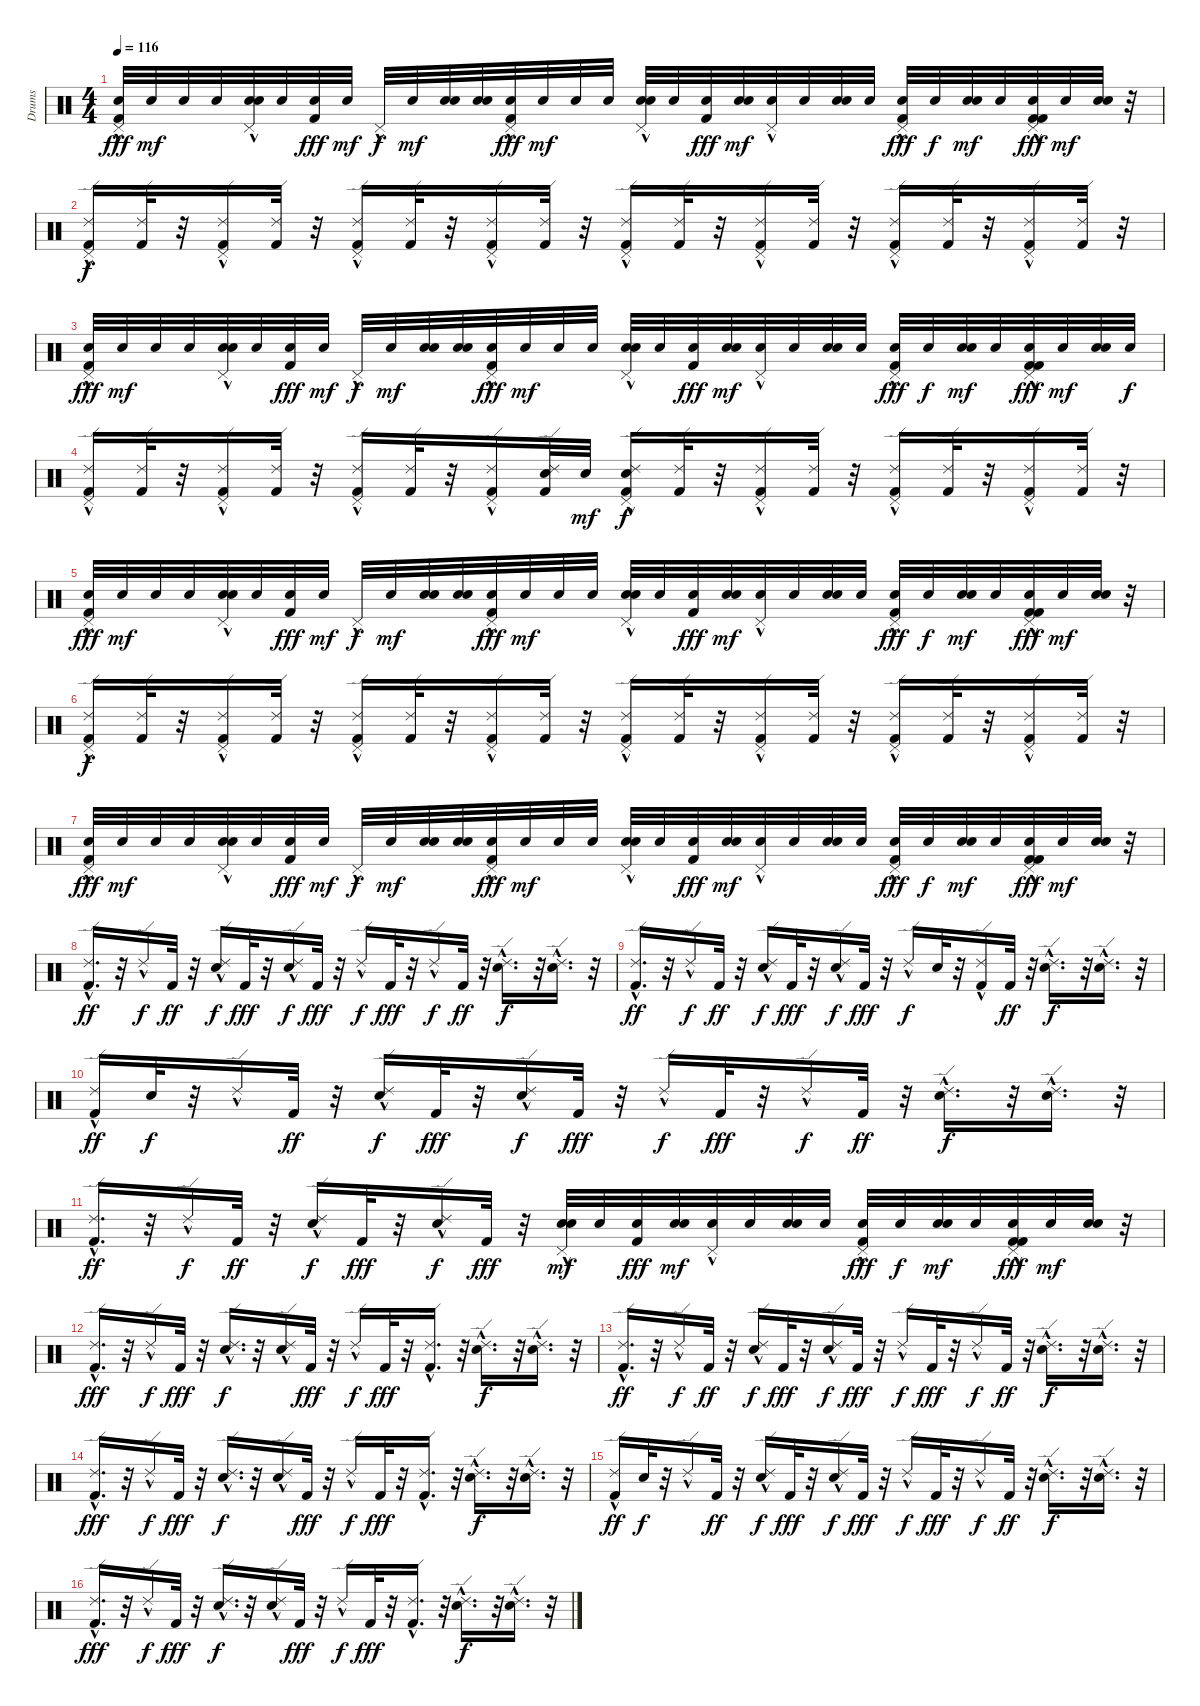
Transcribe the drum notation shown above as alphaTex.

\track ("Drums" "Drums") {instrument percussion}
\staff {score}
\articulation defaults
\ts (4 4)
\tempo 116
\clef neutral
\ks c
("Electric Snare (hit)" "Kick (hit) 2"{hac} "Pedal Hi-Hat (hit)"{hac}).32{dy fff} "Electric Snare (hit)".32{dy mf} "Electric Snare (hit)".32 "Electric Snare (hit)".32 ("Electric Snare (hit)" "Pedal Hi-Hat (hit)"{hac} "Electric Snare (hit)").32 "Electric Snare (hit)".32 ("Electric Snare (hit)" "Kick (hit) 2").32{dy fff} "Electric Snare (hit)".32{dy mf} "Pedal Hi-Hat (hit)"{hac}.32{dy f} "Electric Snare (hit)".32{dy mf} ("Electric Snare (hit)" "Electric Snare (hit)").32 ("Electric Snare (hit)" "Electric Snare (hit)").32 ("Electric Snare (hit)" "Kick (hit) 2" "Pedal Hi-Hat (hit)"{hac}).32{dy fff} "Electric Snare (hit)".32{dy mf} "Electric Snare (hit)".32 "Electric Snare (hit)".32 ("Electric Snare (hit)" "Pedal Hi-Hat (hit)"{hac} "Electric Snare (hit)").32 "Electric Snare (hit)".32 ("Electric Snare (hit)" "Kick (hit) 2").32{dy fff} ("Electric Snare (hit)" "Electric Snare (hit)").32{dy mf} ("Electric Snare (hit)" "Pedal Hi-Hat (hit)"{hac}).32 "Electric Snare (hit)".32 ("Electric Snare (hit)" "Electric Snare (hit)").32 "Electric Snare (hit)".32 ("Electric Snare (hit)" "Kick (hit) 2" "Pedal Hi-Hat (hit)"{hac}).32{dy fff} "Electric Snare (hit)".32{dy f} ("Electric Snare (hit)" "Electric Snare (hit)").32{dy mf} "Electric Snare (hit)".32 ("Kick (hit) 2" "Electric Snare (hit)" "Kick (hit) 2" "Pedal Hi-Hat (hit)"{hac}).32{dy fff} "Electric Snare (hit)".32{dy mf} ("Electric Snare (hit)" "Electric Snare (hit)").32 r.32 |
("Kick (hit) 2" "Ride (edge) 2" "Pedal Hi-Hat (hit)"{hac}).16{dy f} ("Kick (hit) 2" "Ride (edge) 2").32 r.32 ("Kick (hit) 2" "Ride (edge) 2" "Pedal Hi-Hat (hit)"{hac}).16 ("Kick (hit) 2" "Ride (edge) 2").32 r.32 ("Kick (hit) 2" "Ride (edge) 2" "Pedal Hi-Hat (hit)"{hac}).16 ("Kick (hit) 2" "Ride (edge) 2").32 r.32 ("Kick (hit) 2" "Ride (edge) 2" "Pedal Hi-Hat (hit)"{hac}).16 ("Kick (hit) 2" "Ride (edge) 2").32 r.32 ("Kick (hit) 2" "Ride (edge) 2" "Pedal Hi-Hat (hit)"{hac}).16 ("Kick (hit) 2" "Ride (edge) 2").32 r.32 ("Kick (hit) 2" "Ride (edge) 2" "Pedal Hi-Hat (hit)"{hac}).16 ("Kick (hit) 2" "Ride (edge) 2").32 r.32 ("Kick (hit) 2" "Ride (edge) 2" "Pedal Hi-Hat (hit)"{hac}).16 ("Kick (hit) 2" "Ride (edge) 2").32 r.32 ("Kick (hit) 2" "Ride (edge) 2" "Pedal Hi-Hat (hit)"{hac}).16 ("Kick (hit) 2" "Ride (edge) 2").32 r.32 |
("Electric Snare (hit)" "Kick (hit) 2"{hac} "Pedal Hi-Hat (hit)"{hac}).32{dy fff} "Electric Snare (hit)".32{dy mf} "Electric Snare (hit)".32 "Electric Snare (hit)".32 ("Electric Snare (hit)" "Pedal Hi-Hat (hit)"{hac} "Electric Snare (hit)").32 "Electric Snare (hit)".32 ("Electric Snare (hit)" "Kick (hit) 2").32{dy fff} "Electric Snare (hit)".32{dy mf} "Pedal Hi-Hat (hit)"{hac}.32{dy f} "Electric Snare (hit)".32{dy mf} ("Electric Snare (hit)" "Electric Snare (hit)").32 ("Electric Snare (hit)" "Electric Snare (hit)").32 ("Electric Snare (hit)" "Kick (hit) 2" "Pedal Hi-Hat (hit)"{hac}).32{dy fff} "Electric Snare (hit)".32{dy mf} "Electric Snare (hit)".32 "Electric Snare (hit)".32 ("Electric Snare (hit)" "Pedal Hi-Hat (hit)"{hac} "Electric Snare (hit)").32 "Electric Snare (hit)".32 ("Electric Snare (hit)" "Kick (hit) 2").32{dy fff} ("Electric Snare (hit)" "Electric Snare (hit)").32{dy mf} ("Electric Snare (hit)" "Pedal Hi-Hat (hit)"{hac}).32 "Electric Snare (hit)".32 ("Electric Snare (hit)" "Electric Snare (hit)").32 "Electric Snare (hit)".32 ("Electric Snare (hit)" "Kick (hit) 2" "Pedal Hi-Hat (hit)"{hac}).32{dy fff} "Electric Snare (hit)".32{dy f} ("Electric Snare (hit)" "Electric Snare (hit)").32{dy mf} "Electric Snare (hit)".32 ("Kick (hit) 2" "Electric Snare (hit)" "Kick (hit) 2" "Pedal Hi-Hat (hit)"{hac}).32{dy fff} "Electric Snare (hit)".32{dy mf} ("Electric Snare (hit)" "Electric Snare (hit)").32 "Electric Snare (hit)".32{dy f} |
("Kick (hit) 2" "Pedal Hi-Hat (hit)"{hac} "Ride (edge) 2").16 ("Kick (hit) 2" "Ride (edge) 2").32 r.32 ("Kick (hit) 2" "Pedal Hi-Hat (hit)"{hac} "Ride (edge) 2").16 ("Kick (hit) 2" "Ride (edge) 2").32 r.32 ("Kick (hit) 2" "Pedal Hi-Hat (hit)"{hac} "Ride (edge) 2").16 ("Kick (hit) 2" "Ride (edge) 2").32 r.32 ("Pedal Hi-Hat (hit)"{hac} "Kick (hit) 2" "Ride (edge) 2").16 ("Electric Snare (hit)" "Kick (hit) 2" "Ride (edge) 2").32 "Electric Snare (hit)".32{dy mf} ("Electric Snare (hit)" "Kick (hit) 2" "Pedal Hi-Hat (hit)"{hac} "Ride (edge) 2").16{dy f} ("Kick (hit) 2" "Ride (edge) 2").32 r.32 ("Kick (hit) 2" "Pedal Hi-Hat (hit)"{hac} "Ride (edge) 2").16 ("Kick (hit) 2" "Ride (edge) 2").32 r.32 ("Kick (hit) 2" "Pedal Hi-Hat (hit)"{hac} "Ride (edge) 2").16 ("Kick (hit) 2" "Ride (edge) 2").32 r.32 ("Kick (hit) 2" "Pedal Hi-Hat (hit)"{hac} "Ride (edge) 2").16 ("Kick (hit) 2" "Ride (edge) 2").32 r.32 |
("Electric Snare (hit)" "Kick (hit) 2"{hac} "Pedal Hi-Hat (hit)"{hac}).32{dy fff} "Electric Snare (hit)".32{dy mf} "Electric Snare (hit)".32 "Electric Snare (hit)".32 ("Electric Snare (hit)" "Pedal Hi-Hat (hit)"{hac} "Electric Snare (hit)").32 "Electric Snare (hit)".32 ("Electric Snare (hit)" "Kick (hit) 2").32{dy fff} "Electric Snare (hit)".32{dy mf} "Pedal Hi-Hat (hit)"{hac}.32{dy f} "Electric Snare (hit)".32{dy mf} ("Electric Snare (hit)" "Electric Snare (hit)").32 ("Electric Snare (hit)" "Electric Snare (hit)").32 ("Electric Snare (hit)" "Kick (hit) 2" "Pedal Hi-Hat (hit)"{hac}).32{dy fff} "Electric Snare (hit)".32{dy mf} "Electric Snare (hit)".32 "Electric Snare (hit)".32 ("Electric Snare (hit)" "Pedal Hi-Hat (hit)"{hac} "Electric Snare (hit)").32 "Electric Snare (hit)".32 ("Electric Snare (hit)" "Kick (hit) 2").32{dy fff} ("Electric Snare (hit)" "Electric Snare (hit)").32{dy mf} ("Electric Snare (hit)" "Pedal Hi-Hat (hit)"{hac}).32 "Electric Snare (hit)".32 ("Electric Snare (hit)" "Electric Snare (hit)").32 "Electric Snare (hit)".32 ("Electric Snare (hit)" "Kick (hit) 2" "Pedal Hi-Hat (hit)"{hac}).32{dy fff} "Electric Snare (hit)".32{dy f} ("Electric Snare (hit)" "Electric Snare (hit)").32{dy mf} "Electric Snare (hit)".32 ("Kick (hit) 2" "Electric Snare (hit)" "Kick (hit) 2" "Pedal Hi-Hat (hit)"{hac}).32{dy fff} "Electric Snare (hit)".32{dy mf} ("Electric Snare (hit)" "Electric Snare (hit)").32 r.32 |
("Kick (hit) 2" "Ride (edge) 2" "Pedal Hi-Hat (hit)"{hac}).16{dy f} ("Kick (hit) 2" "Ride (edge) 2").32 r.32 ("Kick (hit) 2" "Ride (edge) 2" "Pedal Hi-Hat (hit)"{hac}).16 ("Kick (hit) 2" "Ride (edge) 2").32 r.32 ("Kick (hit) 2" "Ride (edge) 2" "Pedal Hi-Hat (hit)"{hac}).16 ("Kick (hit) 2" "Ride (edge) 2").32 r.32 ("Kick (hit) 2" "Ride (edge) 2" "Pedal Hi-Hat (hit)"{hac}).16 ("Kick (hit) 2" "Ride (edge) 2").32 r.32 ("Kick (hit) 2" "Ride (edge) 2" "Pedal Hi-Hat (hit)"{hac}).16 ("Kick (hit) 2" "Ride (edge) 2").32 r.32 ("Kick (hit) 2" "Ride (edge) 2" "Pedal Hi-Hat (hit)"{hac}).16 ("Kick (hit) 2" "Ride (edge) 2").32 r.32 ("Kick (hit) 2" "Ride (edge) 2" "Pedal Hi-Hat (hit)"{hac}).16 ("Kick (hit) 2" "Ride (edge) 2").32 r.32 ("Kick (hit) 2" "Ride (edge) 2" "Pedal Hi-Hat (hit)"{hac}).16 ("Kick (hit) 2" "Ride (edge) 2").32 r.32 |
("Electric Snare (hit)" "Kick (hit) 2"{hac} "Pedal Hi-Hat (hit)"{hac}).32{dy fff} "Electric Snare (hit)".32{dy mf} "Electric Snare (hit)".32 "Electric Snare (hit)".32 ("Electric Snare (hit)" "Pedal Hi-Hat (hit)"{hac} "Electric Snare (hit)").32 "Electric Snare (hit)".32 ("Electric Snare (hit)" "Kick (hit) 2").32{dy fff} "Electric Snare (hit)".32{dy mf} "Pedal Hi-Hat (hit)"{hac}.32{dy f} "Electric Snare (hit)".32{dy mf} ("Electric Snare (hit)" "Electric Snare (hit)").32 ("Electric Snare (hit)" "Electric Snare (hit)").32 ("Electric Snare (hit)" "Kick (hit) 2" "Pedal Hi-Hat (hit)"{hac}).32{dy fff} "Electric Snare (hit)".32{dy mf} "Electric Snare (hit)".32 "Electric Snare (hit)".32 ("Electric Snare (hit)" "Pedal Hi-Hat (hit)"{hac} "Electric Snare (hit)").32 "Electric Snare (hit)".32 ("Electric Snare (hit)" "Kick (hit) 2").32{dy fff} ("Electric Snare (hit)" "Electric Snare (hit)").32{dy mf} ("Electric Snare (hit)" "Pedal Hi-Hat (hit)"{hac}).32 "Electric Snare (hit)".32 ("Electric Snare (hit)" "Electric Snare (hit)").32 "Electric Snare (hit)".32 ("Electric Snare (hit)" "Kick (hit) 2" "Pedal Hi-Hat (hit)"{hac}).32{dy fff} "Electric Snare (hit)".32{dy f} ("Electric Snare (hit)" "Electric Snare (hit)").32{dy mf} "Electric Snare (hit)".32 ("Kick (hit) 2" "Electric Snare (hit)" "Kick (hit) 2" "Pedal Hi-Hat (hit)"{hac}).32{dy fff} "Electric Snare (hit)".32{dy mf} ("Electric Snare (hit)" "Electric Snare (hit)").32 r.32 |
("Kick (hit) 2"{hac} "Ride (edge) 2"{hac}).16{d dy ff} r.32 "Ride (edge) 2"{hac}.16{dy f} "Kick (hit) 2".32{dy ff} r.32 ("Electric Snare (hit)" "Ride (edge) 2"{hac}).16{dy f} "Kick (hit) 2".32{dy fff} r.32 ("Electric Snare (hit)" "Ride (edge) 2"{hac}).16{dy f} "Kick (hit) 2".32{dy fff} r.32 "Ride (edge) 2"{hac}.16{dy f} "Kick (hit) 2".32{dy fff} r.32 "Ride (edge) 2"{hac}.16{dy f} "Kick (hit) 2".32{dy ff} r.32 ("Electric Snare (hit)" "Ride (edge) 2"{hac}).16{d dy f} r.32 ("Electric Snare (hit)" "Ride (edge) 2"{hac}).16{d} r.32 |
("Kick (hit) 2"{hac} "Ride (edge) 2"{hac}).16{d dy ff} r.32 "Ride (edge) 2"{hac}.16{dy f} "Kick (hit) 2".32{dy ff} r.32 ("Electric Snare (hit)" "Ride (edge) 2"{hac}).16{dy f} "Kick (hit) 2".32{dy fff} r.32 ("Electric Snare (hit)" "Ride (edge) 2"{hac}).16{dy f} "Kick (hit) 2".32{dy fff} r.32 "Ride (edge) 2"{hac}.16{dy f} "Electric Snare (hit)".32 r.32 ("Kick (hit) 2" "Ride (edge) 2"{hac}).16 "Kick (hit) 2".32{dy ff} r.32 ("Electric Snare (hit)" "Ride (edge) 2"{hac}).16{d dy f} r.32 ("Electric Snare (hit)" "Ride (edge) 2"{hac}).16{d} r.32 |
("Kick (hit) 2"{hac} "Ride (edge) 2"{hac}).16{dy ff} "Electric Snare (hit)".32{dy f} r.32 "Ride (edge) 2"{hac}.16 "Kick (hit) 2".32{dy ff} r.32 ("Electric Snare (hit)" "Ride (edge) 2"{hac}).16{dy f} "Kick (hit) 2".32{dy fff} r.32 ("Electric Snare (hit)" "Ride (edge) 2"{hac}).16{dy f} "Kick (hit) 2".32{dy fff} r.32 "Ride (edge) 2"{hac}.16{dy f} "Kick (hit) 2".32{dy fff} r.32 "Ride (edge) 2"{hac}.16{dy f} "Kick (hit) 2".32{dy ff} r.32 ("Electric Snare (hit)" "Ride (edge) 2"{hac}).16{d dy f} r.32 ("Electric Snare (hit)" "Ride (edge) 2"{hac}).16{d} r.32 |
("Kick (hit) 2"{hac} "Ride (edge) 2"{hac}).16{d dy ff} r.32 "Ride (edge) 2"{hac}.16{dy f} "Kick (hit) 2".32{dy ff} r.32 ("Electric Snare (hit)" "Ride (edge) 2"{hac}).16{dy f} "Kick (hit) 2".32{dy fff} r.32 ("Electric Snare (hit)" "Ride (edge) 2"{hac}).16{dy f} "Kick (hit) 2".32{dy fff} r.32 ("Electric Snare (hit)" "Pedal Hi-Hat (hit)"{hac} "Electric Snare (hit)").32{dy mf} "Electric Snare (hit)".32 ("Electric Snare (hit)" "Kick (hit) 2").32{dy fff} ("Electric Snare (hit)" "Electric Snare (hit)").32{dy mf} ("Electric Snare (hit)" "Pedal Hi-Hat (hit)"{hac}).32 "Electric Snare (hit)".32 ("Electric Snare (hit)" "Electric Snare (hit)").32 "Electric Snare (hit)".32 ("Electric Snare (hit)" "Kick (hit) 2" "Pedal Hi-Hat (hit)"{hac}).32{dy fff} "Electric Snare (hit)".32{dy f} ("Electric Snare (hit)" "Electric Snare (hit)").32{dy mf} "Electric Snare (hit)".32 ("Kick (hit) 2" "Electric Snare (hit)" "Kick (hit) 2" "Pedal Hi-Hat (hit)"{hac}).32{dy fff} "Electric Snare (hit)".32{dy mf} ("Electric Snare (hit)" "Electric Snare (hit)").32 r.32 |
("Kick (hit) 2" "Ride (edge) 2"{hac}).16{d dy fff} r.32 "Ride (edge) 2"{hac}.16{dy f} "Kick (hit) 2".32{dy fff} r.32 ("Electric Snare (hit)" "Ride (edge) 2"{hac}).16{d dy f} r.32 ("Electric Snare (hit)" "Ride (edge) 2"{hac}).16 "Kick (hit) 2".32{dy fff} r.32 "Ride (edge) 2"{hac}.16{dy f} "Kick (hit) 2".32{dy fff} r.32 ("Kick (hit) 2" "Ride (edge) 2"{hac}).16{d} r.32 ("Electric Snare (hit)" "Ride (edge) 2"{hac}).16{d dy f} r.32 ("Electric Snare (hit)" "Ride (edge) 2"{hac}).16{d} r.32 |
("Kick (hit) 2"{hac} "Ride (edge) 2"{hac}).16{d dy ff} r.32 "Ride (edge) 2"{hac}.16{dy f} "Kick (hit) 2".32{dy ff} r.32 ("Electric Snare (hit)" "Ride (edge) 2"{hac}).16{dy f} "Kick (hit) 2".32{dy fff} r.32 ("Electric Snare (hit)" "Ride (edge) 2"{hac}).16{dy f} "Kick (hit) 2".32{dy fff} r.32 "Ride (edge) 2"{hac}.16{dy f} "Kick (hit) 2".32{dy fff} r.32 "Ride (edge) 2"{hac}.16{dy f} "Kick (hit) 2".32{dy ff} r.32 ("Electric Snare (hit)" "Ride (edge) 2"{hac}).16{d dy f} r.32 ("Electric Snare (hit)" "Ride (edge) 2"{hac}).16{d} r.32 |
("Kick (hit) 2" "Ride (edge) 2"{hac}).16{d dy fff} r.32 "Ride (edge) 2"{hac}.16{dy f} "Kick (hit) 2".32{dy fff} r.32 ("Electric Snare (hit)" "Ride (edge) 2"{hac}).16{d dy f} r.32 ("Electric Snare (hit)" "Ride (edge) 2"{hac}).16 "Kick (hit) 2".32{dy fff} r.32 "Ride (edge) 2"{hac}.16{dy f} "Kick (hit) 2".32{dy fff} r.32 ("Kick (hit) 2" "Ride (edge) 2"{hac}).16{d} r.32 ("Electric Snare (hit)" "Ride (edge) 2"{hac}).16{d dy f} r.32 ("Electric Snare (hit)" "Ride (edge) 2"{hac}).16{d} r.32 |
("Kick (hit) 2"{hac} "Ride (edge) 2"{hac}).16{dy ff} "Electric Snare (hit)".32{dy f} r.32 "Ride (edge) 2"{hac}.16 "Kick (hit) 2".32{dy ff} r.32 ("Electric Snare (hit)" "Ride (edge) 2"{hac}).16{dy f} "Kick (hit) 2".32{dy fff} r.32 ("Electric Snare (hit)" "Ride (edge) 2"{hac}).16{dy f} "Kick (hit) 2".32{dy fff} r.32 "Ride (edge) 2"{hac}.16{dy f} "Kick (hit) 2".32{dy fff} r.32 "Ride (edge) 2"{hac}.16{dy f} "Kick (hit) 2".32{dy ff} r.32 ("Electric Snare (hit)" "Ride (edge) 2"{hac}).16{d dy f} r.32 ("Electric Snare (hit)" "Ride (edge) 2"{hac}).16{d} r.32 |
("Kick (hit) 2" "Ride (edge) 2"{hac}).16{d dy fff} r.32 "Ride (edge) 2"{hac}.16{dy f} "Kick (hit) 2".32{dy fff} r.32 ("Electric Snare (hit)" "Ride (edge) 2"{hac}).16{d dy f} r.32 ("Electric Snare (hit)" "Ride (edge) 2"{hac}).16 "Kick (hit) 2".32{dy fff} r.32 "Ride (edge) 2"{hac}.16{dy f} "Kick (hit) 2".32{dy fff} r.32 ("Kick (hit) 2" "Ride (edge) 2"{hac}).16{d} r.32 ("Electric Snare (hit)" "Ride (edge) 2"{hac}).16{d dy f} r.32 ("Electric Snare (hit)" "Ride (edge) 2"{hac}).16{d} r.32
